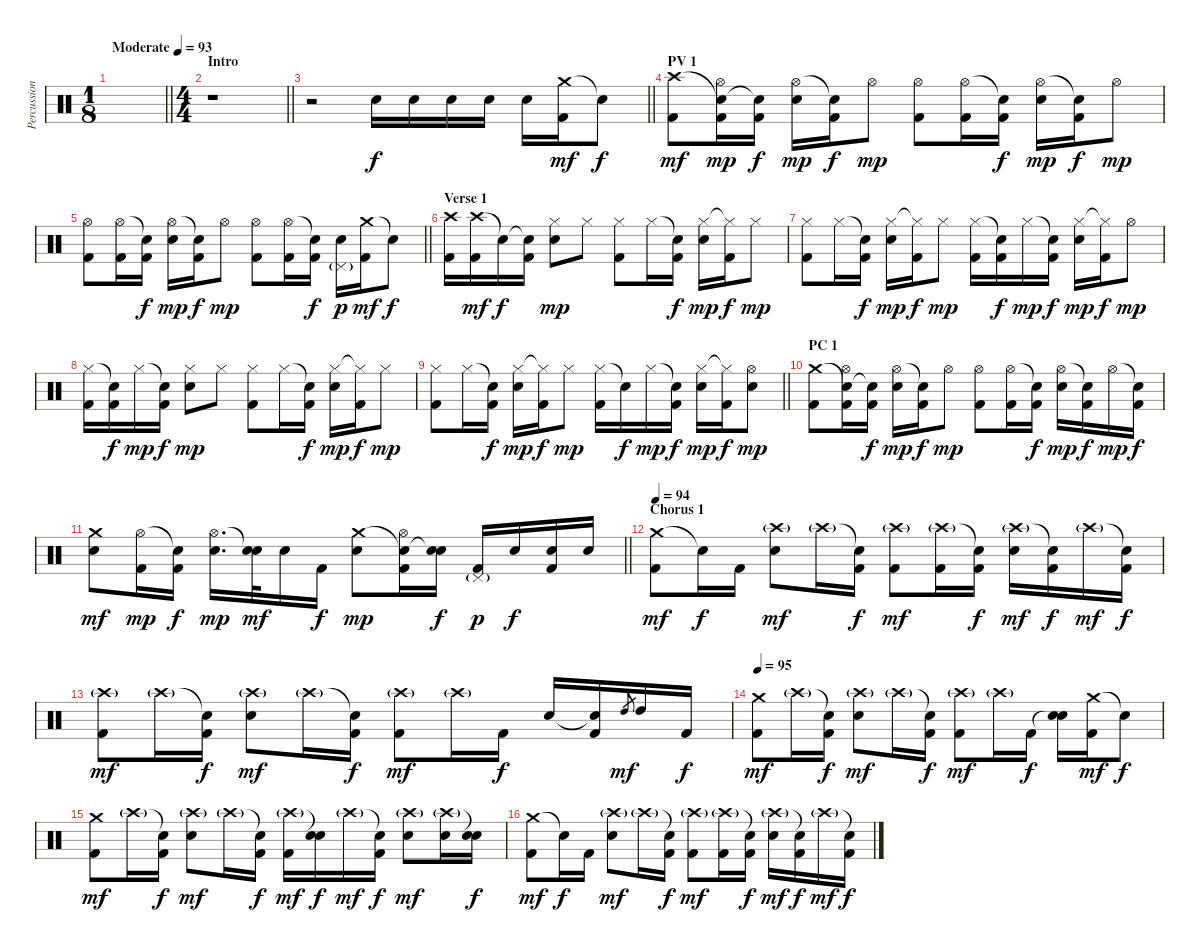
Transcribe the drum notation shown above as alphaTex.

\track ("Percussions" "Percussion") {instrument percussion}
\staff {score}
\articulation defaults
\ts (1 8)
\tempo (93 "Moderate")
\clef neutral
\barLineRight lightlight
\ks c
|
\ts (4 4)
\section ("" "Intro")
\barLineRight lightlight
r.1 |
\barLineRight lightlight
r.2 "Electric Snare (hit)".16 "Electric Snare (hit)".16 "Electric Snare (hit)".16 "Electric Snare (hit)".16 "Electric Snare (hit)".16 ("Crash medium (hit)" "Kick (hit) 2").16{dy mf} "Snare (hit)"{t}.8{dy f} |
\section ("" "PV 1")
("Crash high (hit)" "Kick (hit) 2").8{dy mf} ("Snare (hit)"{t} "Hi-Hat (open)" "Kick (hit) 2").16{dy mp} ("Snare (hit)"{t} "Kick (hit) 2").16{dy f} ("Hi-Hat (open)" "Electric Snare (hit)").16{dy mp} ("Snare (hit)"{t} "Kick (hit) 2").16{dy f} "Hi-Hat (open)".8{dy mp} ("Hi-Hat (open)" "Kick (hit) 2").8 ("Hi-Hat (open)" "Kick (hit) 2").16 ("Snare (hit)"{t} "Kick (hit) 2").16{dy f} ("Hi-Hat (open)" "Electric Snare (hit)").16{dy mp} ("Snare (hit)"{t} "Kick (hit) 2").16{dy f} "Hi-Hat (open)".8{dy mp} |
\barLineRight lightlight
("Hi-Hat (open)" "Kick (hit) 2").8 ("Hi-Hat (open)" "Kick (hit) 2").16 ("Snare (hit)"{t} "Kick (hit) 2").16{dy f} ("Hi-Hat (open)" "Electric Snare (hit)").16{dy mp} ("Snare (hit)"{t} "Kick (hit) 2").16{dy f} "Hi-Hat (open)".8{dy mp} ("Hi-Hat (open)" "Kick (hit) 2").8 ("Hi-Hat (open)" "Kick (hit) 2").16 ("Snare (hit)"{t} "Kick (hit) 2").16{dy f} ("Pedal Hi-Hat (hit)"{g} "Electric Snare (hit)").16{dy p} ("Crash medium (hit)" "Kick (hit) 2").16{dy mf} "Snare (hit)"{t}.8{dy f} |
\section ("" "Verse 1")
("Crash high (hit)" "Kick (hit) 2").16 ("Crash high (hit)" "Kick (hit) 2").16{dy mf} "Snare (hit)"{t}.16{dy f} ("Snare (hit)"{t} "Kick (hit) 2").16 ("Hi-Hat (closed)" "Electric Snare (hit)").8{dy mp} "Hi-Hat (closed)".8 ("Hi-Hat (closed)" "Kick (hit) 2").8 "Hi-Hat (closed)".16 ("Snare (hit)"{t} "Kick (hit) 2").16{dy f} ("Hi-Hat (closed)" "Electric Snare (hit)").16{dy mp} ("Hi-Hat (closed)"{t} "Kick (hit) 2").16{dy f} "Hi-Hat (closed)".8{dy mp} |
("Hi-Hat (closed)" "Kick (hit) 2").8 "Hi-Hat (closed)".16 ("Snare (hit)"{t} "Kick (hit) 2").16{dy f} ("Hi-Hat (closed)" "Electric Snare (hit)").16{dy mp} ("Hi-Hat (closed)"{t} "Kick (hit) 2").16{dy f} "Hi-Hat (closed)".8{dy mp} ("Hi-Hat (closed)" "Kick (hit) 2").16 ("Snare (hit)"{t} "Kick (hit) 2").16{dy f} "Hi-Hat (closed)".16{dy mp} ("Snare (hit)"{t} "Kick (hit) 2").16{dy f} ("Hi-Hat (closed)" "Electric Snare (hit)").16{dy mp} ("Hi-Hat (closed)"{t} "Kick (hit) 2").16{dy f} "Hi-Hat (open)".8{dy mp} |
("Hi-Hat (closed)" "Kick (hit) 2").16 ("Snare (hit)"{t} "Kick (hit) 2").16{dy f} "Hi-Hat (closed)".16{dy mp} ("Snare (hit)"{t} "Kick (hit) 2").16{dy f} ("Hi-Hat (closed)" "Electric Snare (hit)").8{dy mp} "Hi-Hat (closed)".8 ("Hi-Hat (closed)" "Kick (hit) 2").8 "Hi-Hat (closed)".16 ("Snare (hit)"{t} "Kick (hit) 2").16{dy f} ("Hi-Hat (closed)" "Electric Snare (hit)").16{dy mp} ("Hi-Hat (closed)"{t} "Kick (hit) 2").16{dy f} "Hi-Hat (closed)".8{dy mp} |
\barLineRight lightlight
("Hi-Hat (closed)" "Kick (hit) 2").8 "Hi-Hat (closed)".16 ("Snare (hit)"{t} "Kick (hit) 2").16{dy f} ("Hi-Hat (closed)" "Electric Snare (hit)").16{dy mp} ("Hi-Hat (closed)"{t} "Kick (hit) 2").16{dy f} "Hi-Hat (closed)".8{dy mp} ("Hi-Hat (closed)" "Kick (hit) 2").16 "Snare (hit)"{t}.16{dy f} "Hi-Hat (closed)".16{dy mp} ("Snare (hit)"{t} "Kick (hit) 2").16{dy f} ("Hi-Hat (closed)" "Electric Snare (hit)").16{dy mp} ("Hi-Hat (closed)"{t} "Kick (hit) 2").16{dy f} ("Hi-Hat (open)" "Electric Snare (hit)").8{dy mp} |
\section ("" "PC 1")
("Crash medium (hit)" "Kick (hit) 2").8 ("Snare (hit)"{t} "Hi-Hat (open)" "Kick (hit) 2").16 ("Snare (hit)"{t} "Kick (hit) 2").16{dy f} ("Hi-Hat (open)" "Electric Snare (hit)").16{dy mp} ("Snare (hit)"{t} "Kick (hit) 2").16{dy f} "Hi-Hat (open)".8{dy mp} ("Hi-Hat (open)" "Kick (hit) 2").8 ("Hi-Hat (open)" "Kick (hit) 2").16 ("Snare (hit)"{t} "Kick (hit) 2").16{dy f} ("Hi-Hat (open)" "Electric Snare (hit)").16{dy mp} ("Snare (hit)"{t} "Kick (hit) 2").16{dy f} "Hi-Hat (open)".16{dy mp} ("Snare (hit)"{t} "Kick (hit) 2").16{dy f} |
\barLineRight lightlight
("Crash medium (hit)" "Electric Snare (hit)").8{dy mf} ("Hi-Hat (open)" "Kick (hit) 2").16{dy mp} ("Snare (hit)"{t} "Kick (hit) 2").16{dy f} ("Hi-Hat (open)" "Electric Snare (hit)").16{d dy mp} ("Snare (hit)"{t} "Electric Snare (hit)").32{dy mf} "Electric Snare (hit)".16 "Kick (hit) 2".16{dy f} ("Crash medium (hit)" "Electric Snare (hit)").8{dy mp} ("Snare (hit)"{t} "Hi-Hat (open)" "Kick (hit) 2").16 ("Snare (hit)"{t} "Electric Snare (hit)").16{dy f} ("Pedal Hi-Hat (hit)"{g} "Kick (hit) 2").16{dy p} "Electric Snare (hit)".16{dy f} ("Electric Snare (hit)" "Kick (hit) 2").16 "Electric Snare (hit)".16 |
\section ("" "Chorus 1")
\tempo 94
("Crash medium (hit)" "Kick (hit) 2").8{dy mf} "Snare (hit)"{t}.16{dy f} "Kick (hit) 2".16 ("Crash high (hit)"{g} "Electric Snare (hit)").8{dy mf} "Crash high (hit)"{g}.16 ("Snare (hit)"{t} "Kick (hit) 2").16{dy f} ("Crash high (hit)"{g} "Kick (hit) 2").8{dy mf} ("Crash high (hit)"{g} "Kick (hit) 2").16 ("Snare (hit)"{t} "Kick (hit) 2").16{dy f} ("Crash high (hit)"{g} "Electric Snare (hit)").16{dy mf} ("Snare (hit)"{t} "Kick (hit) 2").16{dy f} "Crash high (hit)"{g}.16{dy mf} ("Snare (hit)"{t} "Kick (hit) 2").16{dy f} |
("Crash high (hit)"{g} "Kick (hit) 2").8{dy mf} "Crash high (hit)"{g}.16 ("Snare (hit)"{t} "Kick (hit) 2").16{dy f} ("Crash high (hit)"{g} "Electric Snare (hit)").8{dy mf} "Crash high (hit)"{g}.16 ("Snare (hit)"{t} "Kick (hit) 2").16{dy f} ("Crash high (hit)"{g} "Kick (hit) 2").8{dy mf} "Crash high (hit)"{g}.16 "Kick (hit) 2".16{dy f} "Electric Snare (hit)".16 ("Snare (hit)"{t} "Kick (hit) 2").16 "High Tom (hit)".8{gr dy mf} "High Tom (hit)".16 "Kick (hit) 2".16{dy f} |
\tempo 95
("Crash medium (hit)" "Kick (hit) 2").8{dy mf} "Crash high (hit)"{g}.16 ("Snare (hit)"{t} "Kick (hit) 2").16{dy f} ("Crash high (hit)"{g} "Electric Snare (hit)").8{dy mf} "Crash high (hit)"{g}.16 ("Snare (hit)"{t} "Kick (hit) 2").16{dy f} ("Crash high (hit)"{g} "Kick (hit) 2").8{dy mf} "Crash high (hit)"{g}.16 "Kick (hit) 2".16{dy f} ("Snare (hit)"{t} "Electric Snare (hit)").16 ("Crash medium (hit)" "Kick (hit) 2").16{dy mf} "Snare (hit)"{t}.8{dy f} |
("Crash medium (hit)" "Kick (hit) 2").8{dy mf} "Crash high (hit)"{g}.16 ("Snare (hit)"{t} "Kick (hit) 2").16{dy f} ("Crash high (hit)"{g} "Electric Snare (hit)").8{dy mf} "Crash high (hit)"{g}.16 ("Snare (hit)"{t} "Kick (hit) 2").16{dy f} ("Crash high (hit)"{g} "Kick (hit) 2").16{dy mf} ("Snare (hit)"{t} "Electric Snare (hit)").16{dy f} "Crash high (hit)"{g}.16{dy mf} ("Snare (hit)"{t} "Kick (hit) 2").16{dy f} ("Crash high (hit)"{g} "Electric Snare (hit)").8{dy mf} ("Crash high (hit)"{g} "Electric Snare (hit)").16 ("Snare (hit)"{t} "Electric Snare (hit)").16{dy f} |
("Crash medium (hit)" "Kick (hit) 2").8{dy mf} "Snare (hit)"{t}.16{dy f} "Kick (hit) 2".16 ("Crash high (hit)"{g} "Electric Snare (hit)").8{dy mf} "Crash high (hit)"{g}.16 ("Snare (hit)"{t} "Kick (hit) 2").16{dy f} ("Crash high (hit)"{g} "Kick (hit) 2").8{dy mf} ("Crash high (hit)"{g} "Kick (hit) 2").16 ("Snare (hit)"{t} "Kick (hit) 2").16{dy f} ("Crash high (hit)"{g} "Electric Snare (hit)").16{dy mf} ("Snare (hit)"{t} "Kick (hit) 2").16{dy f} "Crash high (hit)"{g}.16{dy mf} ("Snare (hit)"{t} "Kick (hit) 2").16{dy f}
